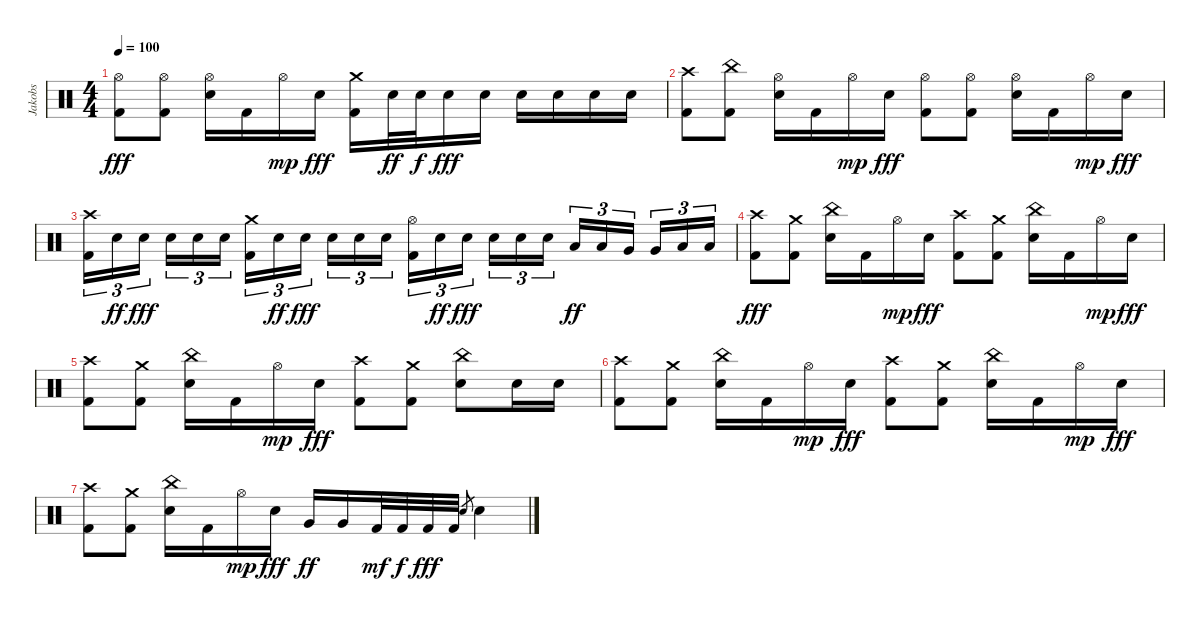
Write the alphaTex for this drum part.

\track ("Jakobs" "Jakobs") {instrument percussion}
\staff {score}
\articulation defaults
\ts (4 4)
\tempo 100
\clef neutral
\ks c
("Hi-Hat (open)" "Kick (hit) 2").8{dy fff} ("Hi-Hat (open)" "Kick (hit) 2").8 ("Hi-Hat (open)" "Snare (hit) 2").16 "Kick (hit) 2".16 "Hi-Hat (open)".16{dy mp} "Snare (hit) 2".16{dy fff} ("Crash medium (hit)" "Kick (hit) 2").16 "Snare (hit) 2".32{dy ff} "Snare (hit) 2".32{dy f} "Snare (hit) 2".16{dy fff} "Snare (hit) 2".16 "Snare (hit) 2".16 "Snare (hit) 2".16 "Snare (hit) 2".16 "Snare (hit) 2".16 |
("Crash high (hit)" "Kick (hit) 2").8 ("China (hit)" "Kick (hit) 2").8 ("Hi-Hat (open)" "Snare (hit) 2").16 "Kick (hit) 2".16 "Hi-Hat (open)".16{dy mp} "Snare (hit) 2".16{dy fff} ("Hi-Hat (open)" "Kick (hit) 2").8 ("Hi-Hat (open)" "Kick (hit) 2").8 ("Hi-Hat (open)" "Snare (hit) 2").16 "Kick (hit) 2".16 "Hi-Hat (open)".16{dy mp} "Snare (hit) 2".16{dy fff} |
("Crash high (hit)" "Kick (hit) 2").16{tu (3 2)} "Snare (hit) 2".16{tu (3 2) dy ff} "Snare (hit) 2".16{tu (3 2) dy fff} "Snare (hit) 2".16{tu (3 2)} "Snare (hit) 2".16{tu (3 2)} "Snare (hit) 2".16{tu (3 2)} ("Crash medium (hit)" "Kick (hit) 2").16{tu (3 2)} "Snare (hit) 2".16{tu (3 2) dy ff} "Snare (hit) 2".16{tu (3 2) dy fff} "Snare (hit) 2".16{tu (3 2)} "Snare (hit) 2".16{tu (3 2)} "Snare (hit) 2".16{tu (3 2)} ("Hi-Hat (open)" "Kick (hit) 2").16{tu (3 2)} "Snare (hit) 2".16{tu (3 2) dy ff} "Snare (hit) 2".16{tu (3 2) dy fff} "Snare (hit) 2".16{tu (3 2)} "Snare (hit) 2".16{tu (3 2)} "Snare (hit) 2".16{tu (3 2)} "Low Tom (hit)".16{tu (3 2) dy ff} "Low Tom (hit)".16{tu (3 2)} "Very Low Tom (hit)".16{tu (3 2)} "Very Low Tom (hit)".16{tu (3 2)} "Low Floor Tom (hit)".16{tu (3 2)} "Low Floor Tom (hit)".16{tu (3 2)} |
("Crash high (hit)" "Kick (hit) 2").8{dy fff} ("Crash medium (hit)" "Kick (hit) 2").8 ("China (hit)" "Snare (hit) 2").16 "Kick (hit) 2".16 "Hi-Hat (open)".16{dy mp} "Snare (hit) 2".16{dy fff} ("Crash high (hit)" "Kick (hit) 2").8 ("Crash medium (hit)" "Kick (hit) 2").8 ("China (hit)" "Snare (hit) 2").16 "Kick (hit) 2".16 "Hi-Hat (open)".16{dy mp} "Snare (hit) 2".16{dy fff} |
("Crash high (hit)" "Kick (hit) 2").8 ("Crash medium (hit)" "Kick (hit) 2").8 ("China (hit)" "Snare (hit) 2").16 "Kick (hit) 2".16 "Hi-Hat (open)".16{dy mp} "Snare (hit) 2".16{dy fff} ("Crash high (hit)" "Kick (hit) 2").8 ("Crash medium (hit)" "Kick (hit) 2").8 ("China (hit)" "Snare (hit) 2").8 "Snare (hit) 2".16 "Snare (hit) 2".16 |
("Crash high (hit)" "Kick (hit) 2").8 ("Crash medium (hit)" "Kick (hit) 2").8 ("China (hit)" "Snare (hit) 2").16 "Kick (hit) 2".16 "Hi-Hat (open)".16{dy mp} "Snare (hit) 2".16{dy fff} ("Crash high (hit)" "Kick (hit) 2").8 ("Crash medium (hit)" "Kick (hit) 2").8 ("China (hit)" "Snare (hit) 2").16 "Kick (hit) 2".16 "Hi-Hat (open)".16{dy mp} "Snare (hit) 2".16{dy fff} |
("Crash high (hit)" "Kick (hit) 2").8 ("Crash medium (hit)" "Kick (hit) 2").8 ("China (hit)" "Snare (hit) 2").16 "Kick (hit) 2".16 "Hi-Hat (open)".16{dy mp} "Snare (hit) 2".16{dy fff} "Very Low Tom (hit)".16{dy ff} "Very Low Tom (hit)".16 "Kick (hit) 2".32{dy mf} "Kick (hit) 2".32{dy f} "Kick (hit) 2".32{dy fff} "Kick (hit) 2".32 "Snare (hit) 2".8{gr} "Snare (hit) 2".4
